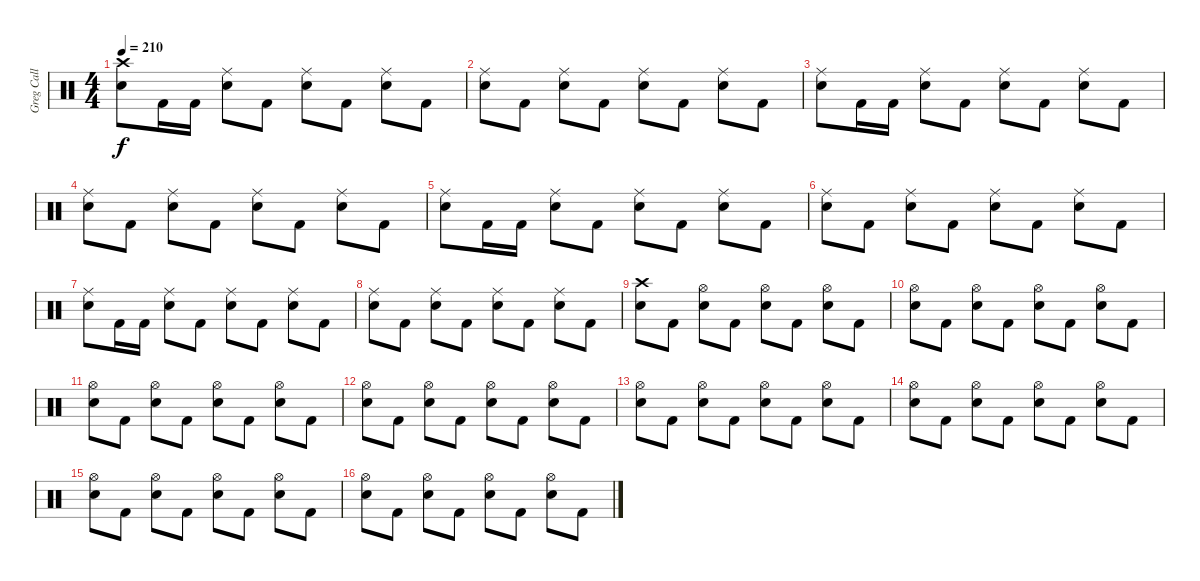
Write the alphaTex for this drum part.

\track ("Greg Call (Drums)" "Greg Call ") {instrument percussion}
\staff {score}
\articulation defaults
\ts (4 4)
\tempo 210
\clef neutral
\ks c
("Crash high (hit)" "Electric Snare (hit)").8{dy f} "Kick (hit) 2".16 "Kick (hit) 2".16 ("Ride (middle)" "Electric Snare (hit)").8 "Kick (hit) 2".8 ("Ride (middle)" "Electric Snare (hit)").8 "Kick (hit) 2".8 ("Ride (middle)" "Electric Snare (hit)").8 "Kick (hit) 2".8 |
("Ride (middle)" "Electric Snare (hit)").8 "Kick (hit) 2".8 ("Ride (middle)" "Electric Snare (hit)").8 "Kick (hit) 2".8 ("Ride (middle)" "Electric Snare (hit)").8 "Kick (hit) 2".8 ("Ride (middle)" "Electric Snare (hit)").8 "Kick (hit) 2".8 |
("Ride (middle)" "Electric Snare (hit)").8 "Kick (hit) 2".16 "Kick (hit) 2".16 ("Ride (middle)" "Electric Snare (hit)").8 "Kick (hit) 2".8 ("Ride (middle)" "Electric Snare (hit)").8 "Kick (hit) 2".8 ("Ride (middle)" "Electric Snare (hit)").8 "Kick (hit) 2".8 |
("Ride (middle)" "Electric Snare (hit)").8 "Kick (hit) 2".8 ("Ride (middle)" "Electric Snare (hit)").8 "Kick (hit) 2".8 ("Ride (middle)" "Electric Snare (hit)").8 "Kick (hit) 2".8 ("Ride (middle)" "Electric Snare (hit)").8 "Kick (hit) 2".8 |
("Ride (middle)" "Electric Snare (hit)").8 "Kick (hit) 2".16 "Kick (hit) 2".16 ("Ride (middle)" "Electric Snare (hit)").8 "Kick (hit) 2".8 ("Ride (middle)" "Electric Snare (hit)").8 "Kick (hit) 2".8 ("Ride (middle)" "Electric Snare (hit)").8 "Kick (hit) 2".8 |
("Ride (middle)" "Electric Snare (hit)").8 "Kick (hit) 2".8 ("Ride (middle)" "Electric Snare (hit)").8 "Kick (hit) 2".8 ("Ride (middle)" "Electric Snare (hit)").8 "Kick (hit) 2".8 ("Ride (middle)" "Electric Snare (hit)").8 "Kick (hit) 2".8 |
("Ride (middle)" "Electric Snare (hit)").8 "Kick (hit) 2".16 "Kick (hit) 2".16 ("Ride (middle)" "Electric Snare (hit)").8 "Kick (hit) 2".8 ("Ride (middle)" "Electric Snare (hit)").8 "Kick (hit) 2".8 ("Ride (middle)" "Electric Snare (hit)").8 "Kick (hit) 2".8 |
("Ride (middle)" "Electric Snare (hit)").8 "Kick (hit) 2".8 ("Ride (middle)" "Electric Snare (hit)").8 "Kick (hit) 2".8 ("Ride (middle)" "Electric Snare (hit)").8{volume 9} "Kick (hit) 2".8 ("Ride (middle)" "Electric Snare (hit)").8 "Kick (hit) 2".8 |
("Crash high (hit)" "Electric Snare (hit)").8{volume 13} "Kick (hit) 2".8 ("Hi-Hat (open)" "Electric Snare (hit)").8 "Kick (hit) 2".8 ("Hi-Hat (open)" "Electric Snare (hit)").8 "Kick (hit) 2".8 ("Hi-Hat (open)" "Electric Snare (hit)").8 "Kick (hit) 2".8 |
("Hi-Hat (open)" "Electric Snare (hit)").8 "Kick (hit) 2".8 ("Hi-Hat (open)" "Electric Snare (hit)").8 "Kick (hit) 2".8 ("Hi-Hat (open)" "Electric Snare (hit)").8 "Kick (hit) 2".8 ("Hi-Hat (open)" "Electric Snare (hit)").8 "Kick (hit) 2".8 |
("Hi-Hat (open)" "Electric Snare (hit)").8 "Kick (hit) 2".8 ("Hi-Hat (open)" "Electric Snare (hit)").8 "Kick (hit) 2".8 ("Hi-Hat (open)" "Electric Snare (hit)").8 "Kick (hit) 2".8 ("Hi-Hat (open)" "Electric Snare (hit)").8 "Kick (hit) 2".8 |
("Hi-Hat (open)" "Electric Snare (hit)").8 "Kick (hit) 2".8 ("Hi-Hat (open)" "Electric Snare (hit)").8 "Kick (hit) 2".8 ("Hi-Hat (open)" "Electric Snare (hit)").8 "Kick (hit) 2".8 ("Hi-Hat (open)" "Electric Snare (hit)").8 "Kick (hit) 2".8 |
("Hi-Hat (open)" "Electric Snare (hit)").8 "Kick (hit) 2".8 ("Hi-Hat (open)" "Electric Snare (hit)").8 "Kick (hit) 2".8 ("Hi-Hat (open)" "Electric Snare (hit)").8 "Kick (hit) 2".8 ("Hi-Hat (open)" "Electric Snare (hit)").8 "Kick (hit) 2".8 |
("Hi-Hat (open)" "Electric Snare (hit)").8 "Kick (hit) 2".8 ("Hi-Hat (open)" "Electric Snare (hit)").8 "Kick (hit) 2".8 ("Hi-Hat (open)" "Electric Snare (hit)").8 "Kick (hit) 2".8 ("Hi-Hat (open)" "Electric Snare (hit)").8 "Kick (hit) 2".8 |
("Hi-Hat (open)" "Electric Snare (hit)").8 "Kick (hit) 2".8 ("Hi-Hat (open)" "Electric Snare (hit)").8 "Kick (hit) 2".8 ("Hi-Hat (open)" "Electric Snare (hit)").8 "Kick (hit) 2".8 ("Hi-Hat (open)" "Electric Snare (hit)").8 "Kick (hit) 2".8 |
("Hi-Hat (open)" "Electric Snare (hit)").8 "Kick (hit) 2".8 ("Hi-Hat (open)" "Electric Snare (hit)").8 "Kick (hit) 2".8 ("Hi-Hat (open)" "Electric Snare (hit)").8 "Kick (hit) 2".8 ("Hi-Hat (open)" "Electric Snare (hit)").8 "Kick (hit) 2".8
